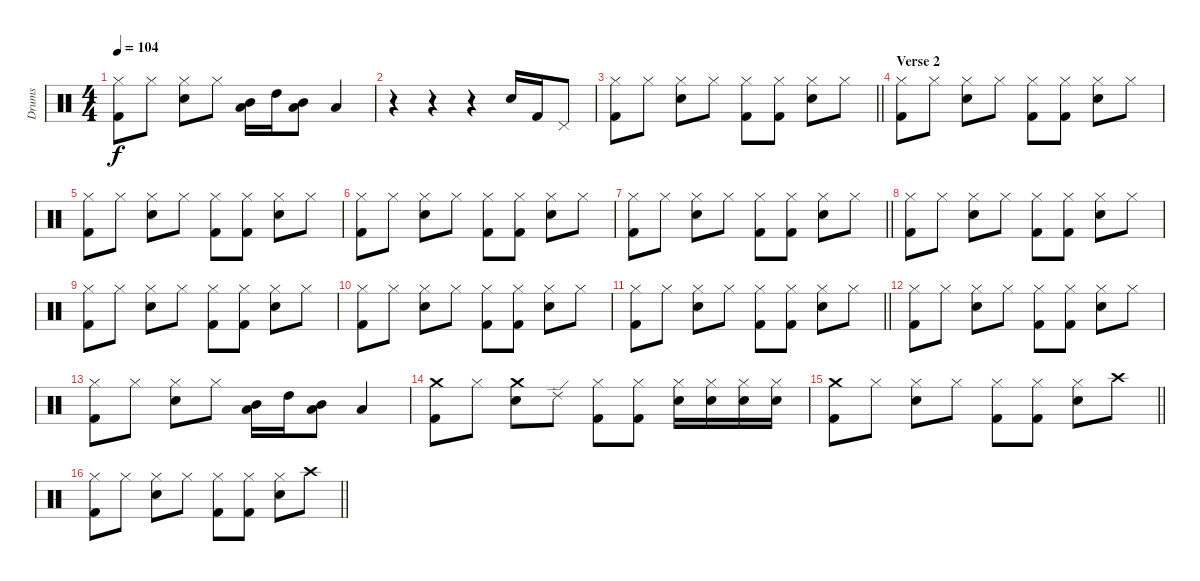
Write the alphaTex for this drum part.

\track ("Drums" "Drums") {instrument percussion}
\staff {score}
\articulation defaults
\ts (4 4)
\tempo 104
\clef neutral
\ks c
("Hi-Hat (closed)" "Kick (hit) 2").8{dy f} "Hi-Hat (closed)".8 ("Hi-Hat (closed)" "Snare (hit) 2").8 "Hi-Hat (closed)".8 ("Mid Tom (hit)" "Low Tom (hit)").16 "High Tom (hit)".16 ("Mid Tom (hit)" "Low Tom (hit)").8 "Low Tom (hit)".4 |
r.4 r.4 r.4 "Snare (hit) 2".16 "Kick (hit) 2".16 "Pedal Hi-Hat (hit)".8 |
\barLineRight lightlight
("Hi-Hat (closed)" "Kick (hit) 2").8 "Hi-Hat (closed)".8 ("Hi-Hat (closed)" "Snare (hit) 2").8 "Hi-Hat (closed)".8 ("Hi-Hat (closed)" "Kick (hit) 2").8 ("Hi-Hat (closed)" "Kick (hit) 2").8 ("Hi-Hat (closed)" "Snare (hit) 2").8 "Hi-Hat (closed)".8 |
\section ("" "Verse 2")
("Hi-Hat (closed)" "Kick (hit) 2").8 "Hi-Hat (closed)".8 ("Hi-Hat (closed)" "Snare (hit) 2").8 "Hi-Hat (closed)".8 ("Hi-Hat (closed)" "Kick (hit) 2").8 ("Hi-Hat (closed)" "Kick (hit) 2").8 ("Hi-Hat (closed)" "Snare (hit) 2").8 "Hi-Hat (closed)".8 |
("Hi-Hat (closed)" "Kick (hit) 2").8 "Hi-Hat (closed)".8 ("Hi-Hat (closed)" "Snare (hit) 2").8 "Hi-Hat (closed)".8 ("Hi-Hat (closed)" "Kick (hit) 2").8 ("Hi-Hat (closed)" "Kick (hit) 2").8 ("Hi-Hat (closed)" "Snare (hit) 2").8 "Hi-Hat (closed)".8 |
("Hi-Hat (closed)" "Kick (hit) 2").8 "Hi-Hat (closed)".8 ("Hi-Hat (closed)" "Snare (hit) 2").8 "Hi-Hat (closed)".8 ("Hi-Hat (closed)" "Kick (hit) 2").8 ("Hi-Hat (closed)" "Kick (hit) 2").8 ("Hi-Hat (closed)" "Snare (hit) 2").8 "Hi-Hat (closed)".8 |
\barLineRight lightlight
("Hi-Hat (closed)" "Kick (hit) 2").8 "Hi-Hat (closed)".8 ("Hi-Hat (closed)" "Snare (hit) 2").8 "Hi-Hat (closed)".8 ("Hi-Hat (closed)" "Kick (hit) 2").8 ("Hi-Hat (closed)" "Kick (hit) 2").8 ("Hi-Hat (closed)" "Snare (hit) 2").8 "Hi-Hat (closed)".8 |
("Hi-Hat (closed)" "Kick (hit) 2").8 "Hi-Hat (closed)".8 ("Hi-Hat (closed)" "Snare (hit) 2").8 "Hi-Hat (closed)".8 ("Hi-Hat (closed)" "Kick (hit) 2").8 ("Hi-Hat (closed)" "Kick (hit) 2").8 ("Hi-Hat (closed)" "Snare (hit) 2").8 "Hi-Hat (closed)".8 |
("Hi-Hat (closed)" "Kick (hit) 2").8 "Hi-Hat (closed)".8 ("Hi-Hat (closed)" "Snare (hit) 2").8 "Hi-Hat (closed)".8 ("Hi-Hat (closed)" "Kick (hit) 2").8 ("Hi-Hat (closed)" "Kick (hit) 2").8 ("Hi-Hat (closed)" "Snare (hit) 2").8 "Hi-Hat (closed)".8 |
("Hi-Hat (closed)" "Kick (hit) 2").8 "Hi-Hat (closed)".8 ("Hi-Hat (closed)" "Snare (hit) 2").8 "Hi-Hat (closed)".8 ("Hi-Hat (closed)" "Kick (hit) 2").8 ("Hi-Hat (closed)" "Kick (hit) 2").8 ("Hi-Hat (closed)" "Snare (hit) 2").8 "Hi-Hat (closed)".8 |
\barLineRight lightlight
("Hi-Hat (closed)" "Kick (hit) 2").8 "Hi-Hat (closed)".8 ("Hi-Hat (closed)" "Snare (hit) 2").8 "Hi-Hat (closed)".8 ("Hi-Hat (closed)" "Kick (hit) 2").8 ("Hi-Hat (closed)" "Kick (hit) 2").8 ("Hi-Hat (closed)" "Snare (hit) 2").8 "Hi-Hat (closed)".8 |
("Hi-Hat (closed)" "Kick (hit) 2").8 "Hi-Hat (closed)".8 ("Hi-Hat (closed)" "Snare (hit) 2").8 "Hi-Hat (closed)".8 ("Hi-Hat (closed)" "Kick (hit) 2").8 ("Hi-Hat (closed)" "Kick (hit) 2").8 ("Hi-Hat (closed)" "Snare (hit) 2").8 "Hi-Hat (closed)".8 |
("Hi-Hat (closed)" "Kick (hit) 2").8 "Hi-Hat (closed)".8 ("Hi-Hat (closed)" "Snare (hit) 2").8 "Hi-Hat (closed)".8 ("Mid Tom (hit)" "Low Tom (hit)").16 "High Tom (hit)".16 ("Mid Tom (hit)" "Low Tom (hit)").8 "Low Tom (hit)".4 |
("Crash medium (hit)" "Kick (hit) 2").8 "Hi-Hat (closed)".8 ("Crash medium (hit)" "Snare (hit) 2").8 "Ride (edge) 2".8 ("Hi-Hat (closed)" "Kick (hit) 2").8 ("Hi-Hat (closed)" "Kick (hit) 2").8 ("Hi-Hat (closed)" "Snare (hit) 2").16 ("Hi-Hat (closed)" "Snare (hit) 2").16 ("Hi-Hat (closed)" "Snare (hit) 2").16 ("Hi-Hat (closed)" "Snare (hit) 2").16 |
\barLineRight lightlight
("Crash medium (hit)" "Kick (hit) 2").8 "Hi-Hat (closed)".8 ("Hi-Hat (closed)" "Snare (hit) 2").8 "Hi-Hat (closed)".8 ("Hi-Hat (closed)" "Kick (hit) 2").8 ("Hi-Hat (closed)" "Kick (hit) 2").8 ("Hi-Hat (closed)" "Snare (hit) 2").8 "Crash high (hit)".8 |
\barLineRight lightlight
("Hi-Hat (closed)" "Kick (hit) 2").8 "Hi-Hat (closed)".8 ("Hi-Hat (closed)" "Snare (hit) 2").8 "Hi-Hat (closed)".8 ("Hi-Hat (closed)" "Kick (hit) 2").8 ("Hi-Hat (closed)" "Kick (hit) 2").8 ("Hi-Hat (closed)" "Snare (hit) 2").8 "Crash high (hit)".8
